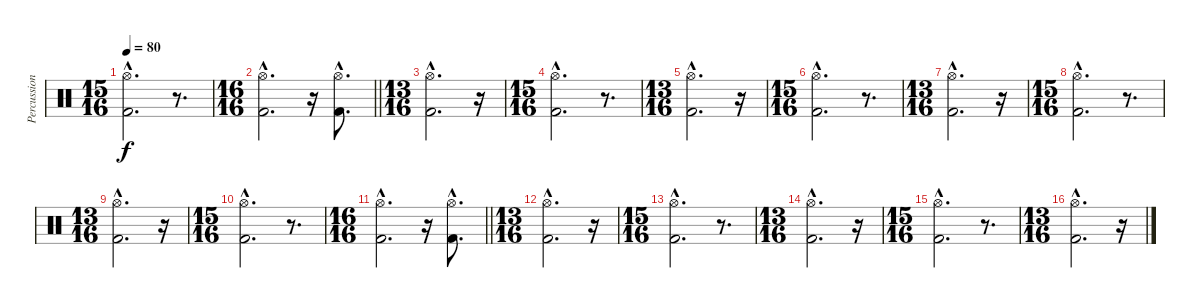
\track ("Percussion" "Percussion") {instrument percussion}
\staff {score}
\articulation defaults
\ts (15 16)
\tempo 80
\clef neutral
\ks c
("Hi-Hat (open)"{hac} "Kick (hit) 2"{hac}).2{d dy f} r.8{d} |
\ts (16 16)
\barLineRight lightlight
("Hi-Hat (open)"{hac} "Kick (hit) 2"{hac}).2{d} r.16 ("Hi-Hat (open)"{hac} "Kick (hit) 2"{hac}).8{d} |
\ts (13 16)
\section ("" "")
("Hi-Hat (open)"{hac} "Kick (hit) 2"{hac}).2{d} r.16 |
\ts (15 16)
("Hi-Hat (open)"{hac} "Kick (hit) 2"{hac}).2{d} r.8{d} |
\ts (13 16)
("Hi-Hat (open)"{hac} "Kick (hit) 2"{hac}).2{d} r.16 |
\ts (15 16)
("Hi-Hat (open)"{hac} "Kick (hit) 2"{hac}).2{d} r.8{d} |
\ts (13 16)
("Hi-Hat (open)"{hac} "Kick (hit) 2"{hac}).2{d} r.16 |
\ts (15 16)
("Hi-Hat (open)"{hac} "Kick (hit) 2"{hac}).2{d} r.8{d} |
\ts (13 16)
("Hi-Hat (open)"{hac} "Kick (hit) 2"{hac}).2{d} r.16 |
\ts (15 16)
("Hi-Hat (open)"{hac} "Kick (hit) 2"{hac}).2{d} r.8{d} |
\ts (16 16)
\barLineRight lightlight
("Hi-Hat (open)"{hac} "Kick (hit) 2"{hac}).2{d} r.16 ("Hi-Hat (open)"{hac} "Kick (hit) 2"{hac}).8{d} |
\ts (13 16)
\section ("" "")
("Hi-Hat (open)"{hac} "Kick (hit) 2"{hac}).2{d} r.16 |
\ts (15 16)
("Hi-Hat (open)"{hac} "Kick (hit) 2"{hac}).2{d} r.8{d} |
\ts (13 16)
("Hi-Hat (open)"{hac} "Kick (hit) 2"{hac}).2{d} r.16 |
\ts (15 16)
("Hi-Hat (open)"{hac} "Kick (hit) 2"{hac}).2{d} r.8{d} |
\ts (13 16)
("Hi-Hat (open)"{hac} "Kick (hit) 2"{hac}).2{d} r.16
